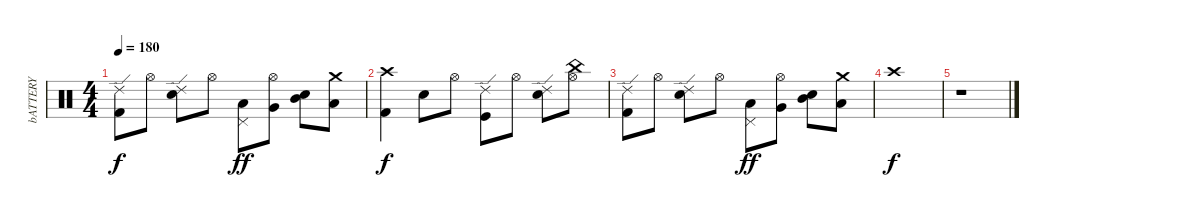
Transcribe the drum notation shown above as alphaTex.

\track ("bATTERY" "bATTERY") {instrument percussion}
\staff {score}
\articulation defaults
\ts (4 4)
\tempo 180
\clef neutral
\ks c
("Kick (hit) 2" "Ride (edge) 2").8{dy f} "Hi-Hat (open)".8 ("Electric Snare (hit)" "Ride (edge) 2").8 "Hi-Hat (open)".8 ("Pedal Hi-Hat (hit)" "Low Tom (hit)").8{dy ff} ("Very Low Tom (hit)" "Hi-Hat (open)").8 ("Mid Tom (hit)" "Electric Snare (hit)").8 ("Low Floor Tom (hit)" "Crash medium (hit)").8 |
("Kick (hit) 2" "Crash high (hit)").4{dy f} "Electric Snare (hit)".8 "Hi-Hat (open)".8 ("Kick (hit)" "Ride (edge) 2").8 "Hi-Hat (open)".8 ("Electric Snare (hit)" "Ride (edge) 2").8 ("Hi-Hat (open)" "China (hit)").8 |
("Kick (hit) 2" "Ride (edge) 2").8 "Hi-Hat (open)".8 ("Electric Snare (hit)" "Ride (edge) 2").8 "Hi-Hat (open)".8 ("Pedal Hi-Hat (hit)" "Low Tom (hit)").8{dy ff} ("Very Low Tom (hit)" "Hi-Hat (open)").8 ("Mid Tom (hit)" "Electric Snare (hit)").8 ("Low Floor Tom (hit)" "Crash medium (hit)").8 |
"Crash high (hit)".1{dy f} |
r.1
